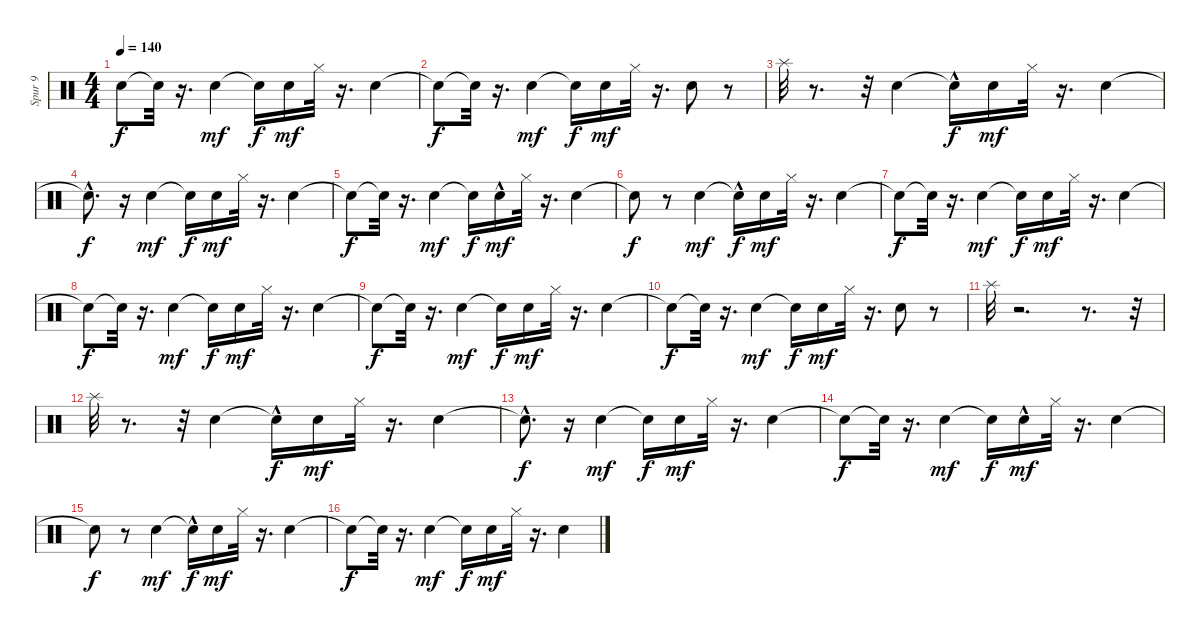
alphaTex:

\track ("Spur 9" "Spur 9") {instrument percussion}
\staff {score}
\articulation defaults
\ts (4 4)
\tempo 140
\clef neutral
\ks c "Snare (hit)"{t}.8{dy f} "Snare (hit)"{t}.32
r.16{d} "Electric Snare (hit)".4{dy mf} "Snare (hit)"{t}.16{dy f} "Snare (hit)".16{dy mf} "Hi-Hat (closed)".32 r.16{d} "Electric Snare (hit)".4 |
"Snare (hit)"{t}.8{dy f} "Snare (hit)"{t}.32 r.16{d} "Electric Snare (hit)".4{dy mf} "Snare (hit)"{t}.16{dy f} "Snare (hit)".16{dy mf} "Hi-Hat (closed)".32 r.16{d} "Electric Snare (hit)".8 r.8 |
"Splash (hit)".32 r.8{d} r.32 "Electric Snare (hit)".4 "Snare (hit)"{hac t}.16{dy f} "Snare (hit)".16{dy mf} "Hi-Hat (closed)".32 r.16{d} "Electric Snare (hit)".4 |
"Snare (hit)"{hac t}.8{d dy f} r.16 "Electric Snare (hit)".4{dy mf} "Snare (hit)"{t}.16{dy f} "Snare (hit)".16{dy mf} "Hi-Hat (closed)".32 r.16{d} "Electric Snare (hit)".4 |
"Snare (hit)"{t}.8{dy f} "Snare (hit)"{t}.32 r.16{d} "Electric Snare (hit)".4{dy mf} "Snare (hit)"{t}.16{dy f} "Snare (hit)"{hac}.16{dy mf} "Hi-Hat (closed)".32 r.16{d} "Electric Snare (hit)".4 |
"Snare (hit)"{t}.8{dy f} r.8 "Electric Snare (hit)".4{dy mf} "Snare (hit)"{hac t}.16{dy f} "Snare (hit)".16{dy mf} "Hi-Hat (closed)".32 r.16{d} "Electric Snare (hit)".4 |
"Snare (hit)"{t}.8{dy f} "Snare (hit)"{t}.32 r.16{d} "Electric Snare (hit)".4{dy mf} "Snare (hit)"{t}.16{dy f} "Snare (hit)".16{dy mf} "Hi-Hat (closed)".32 r.16{d} "Electric Snare (hit)".4 |
"Snare (hit)"{t}.8{dy f} "Snare (hit)"{t}.32 r.16{d} "Electric Snare (hit)".4{dy mf} "Snare (hit)"{t}.16{dy f} "Snare (hit)".16{dy mf} "Hi-Hat (closed)".32 r.16{d} "Electric Snare (hit)".4 |
"Snare (hit)"{t}.8{dy f} "Snare (hit)"{t}.32 r.16{d} "Electric Snare (hit)".4{dy mf} "Snare (hit)"{t}.16{dy f} "Snare (hit)".16{dy mf} "Hi-Hat (closed)".32 r.16{d} "Electric Snare (hit)".4 |
"Snare (hit)"{t}.8{dy f} "Snare (hit)"{t}.32 r.16{d} "Electric Snare (hit)".4{dy mf} "Snare (hit)"{t}.16{dy f} "Snare (hit)".16{dy mf} "Hi-Hat (closed)".32 r.16{d} "Electric Snare (hit)".8 r.8 |
"Splash (hit)".32 r.2{d} r.8{d} r.32 |
"Splash (hit)".32 r.8{d} r.32 "Electric Snare (hit)".4 "Snare (hit)"{hac t}.16{dy f} "Snare (hit)".16{dy mf} "Hi-Hat (closed)".32 r.16{d} "Electric Snare (hit)".4 |
"Snare (hit)"{hac t}.8{d dy f} r.16 "Electric Snare (hit)".4{dy mf} "Snare (hit)"{t}.16{dy f} "Snare (hit)".16{dy mf} "Hi-Hat (closed)".32 r.16{d} "Electric Snare (hit)".4 |
"Snare (hit)"{t}.8{dy f} "Snare (hit)"{t}.32 r.16{d} "Electric Snare (hit)".4{dy mf} "Snare (hit)"{t}.16{dy f} "Snare (hit)"{hac}.16{dy mf} "Hi-Hat (closed)".32 r.16{d} "Electric Snare (hit)".4 |
"Snare (hit)"{t}.8{dy f} r.8 "Electric Snare (hit)".4{dy mf} "Snare (hit)"{hac t}.16{dy f} "Snare (hit)".16{dy mf} "Hi-Hat (closed)".32 r.16{d} "Electric Snare (hit)".4 |
"Snare (hit)"{t}.8{dy f} "Snare (hit)"{t}.32 r.16{d} "Electric Snare (hit)".4{dy mf} "Snare (hit)"{t}.16{dy f} "Snare (hit)".16{dy mf} "Hi-Hat (closed)".32 r.16{d} "Electric Snare (hit)".4
